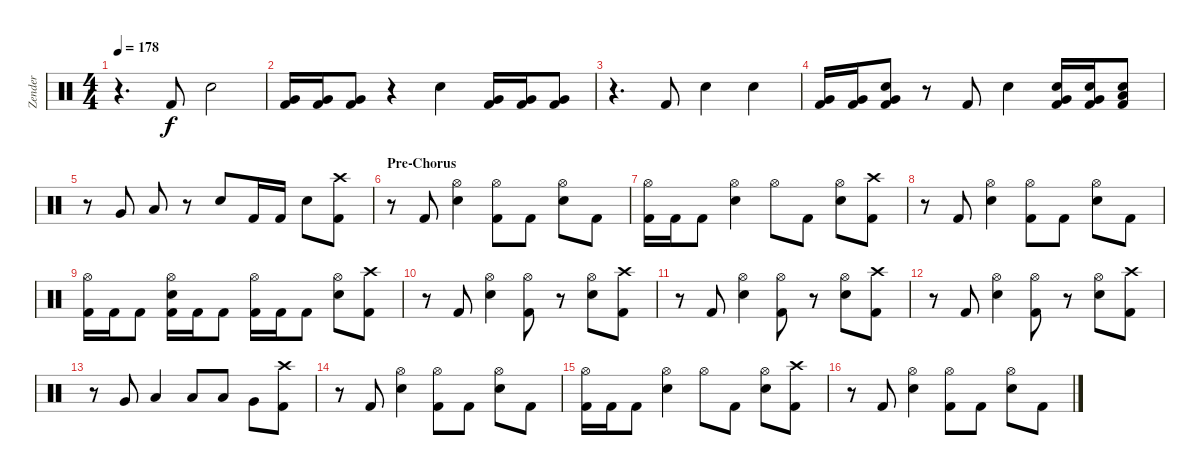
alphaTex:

\track ("Zender" "Zender") {instrument percussion}
\staff {score}
\articulation defaults
\ts (4 4)
\tempo 178
\clef neutral
\ks c
r.4{d dy f} "Kick (hit) 2".8 "Electric Snare (hit)".2 |
("Very Low Tom (hit)" "Kick (hit) 2").16 ("Very Low Tom (hit)" "Kick (hit) 2").16 ("Very Low Tom (hit)" "Kick (hit) 2").8 r.4 "Electric Snare (hit)".4 ("Very Low Tom (hit)" "Kick (hit) 2").16 ("Very Low Tom (hit)" "Kick (hit) 2").16 ("Very Low Tom (hit)" "Kick (hit) 2").8 |
r.4{d} "Kick (hit) 2".8 "Electric Snare (hit)".4 "Electric Snare (hit)".4 |
("Very Low Tom (hit)" "Kick (hit) 2").16 ("Very Low Tom (hit)" "Kick (hit) 2").16 ("Electric Snare (hit)" "Very Low Tom (hit)" "Kick (hit) 2").8 r.8 "Kick (hit) 2".8 "Electric Snare (hit)".4 ("Electric Snare (hit)" "Very Low Tom (hit)" "Kick (hit) 2").16 ("Electric Snare (hit)" "Very Low Tom (hit)" "Kick (hit) 2").16 ("Electric Snare (hit)" "Low Tom (hit)" "Kick (hit) 2").8 |
r.8 "Very Low Tom (hit)".8 "Low Floor Tom (hit)".8 r.8 "Electric Snare (hit)".8 "Kick (hit) 2".16 "Kick (hit) 2".16 "Electric Snare (hit)".8 ("Crash high (hit)" "Kick (hit) 2").8 |
\section ("" "Pre-Chorus")
r.8 "Kick (hit) 2".8 ("Hi-Hat (open)" "Electric Snare (hit)").4 ("Hi-Hat (open)" "Kick (hit) 2").8 "Kick (hit) 2".8 ("Hi-Hat (open)" "Electric Snare (hit)").8 "Kick (hit) 2".8 |
("Hi-Hat (open)" "Kick (hit) 2").16 "Kick (hit) 2".16 "Kick (hit) 2".8 ("Hi-Hat (open)" "Electric Snare (hit)").4 "Hi-Hat (open)".8 "Kick (hit) 2".8 ("Hi-Hat (open)" "Electric Snare (hit)").8 ("Crash high (hit)" "Kick (hit) 2").8 |
r.8 "Kick (hit) 2".8 ("Hi-Hat (open)" "Electric Snare (hit)").4 ("Hi-Hat (open)" "Kick (hit) 2").8 "Kick (hit) 2".8 ("Hi-Hat (open)" "Electric Snare (hit)").8 "Kick (hit) 2".8 |
("Hi-Hat (open)" "Kick (hit) 2").16 "Kick (hit) 2".16 "Kick (hit) 2".8 ("Hi-Hat (open)" "Electric Snare (hit)" "Kick (hit) 2").16 "Kick (hit) 2".16 "Kick (hit) 2".8 ("Hi-Hat (open)" "Kick (hit) 2").16 "Kick (hit) 2".16 "Kick (hit) 2".8 ("Hi-Hat (open)" "Electric Snare (hit)").8 ("Crash high (hit)" "Kick (hit) 2").8 |
r.8 "Kick (hit) 2".8 ("Hi-Hat (open)" "Electric Snare (hit)").4 ("Hi-Hat (open)" "Kick (hit) 2").8 r.8 ("Hi-Hat (open)" "Electric Snare (hit)").8 ("Crash high (hit)" "Kick (hit) 2").8 |
r.8 "Kick (hit) 2".8 ("Hi-Hat (open)" "Electric Snare (hit)").4 ("Hi-Hat (open)" "Kick (hit) 2").8 r.8 ("Hi-Hat (open)" "Electric Snare (hit)").8 ("Crash high (hit)" "Kick (hit) 2").8 |
r.8 "Kick (hit) 2".8 ("Hi-Hat (open)" "Electric Snare (hit)").4 ("Hi-Hat (open)" "Kick (hit) 2").8 r.8 ("Hi-Hat (open)" "Electric Snare (hit)").8 ("Crash high (hit)" "Kick (hit) 2").8 |
r.8 "Very Low Tom (hit)".8 "Low Floor Tom (hit)".4 "Low Floor Tom (hit)".8 "Low Tom (hit)".8 "Very Low Tom (hit)".8 ("Crash high (hit)" "Kick (hit) 2").8 |
r.8 "Kick (hit) 2".8 ("Hi-Hat (open)" "Electric Snare (hit)").4 ("Hi-Hat (open)" "Kick (hit) 2").8 "Kick (hit) 2".8 ("Hi-Hat (open)" "Electric Snare (hit)").8 "Kick (hit) 2".8 |
("Hi-Hat (open)" "Kick (hit) 2").16 "Kick (hit) 2".16 "Kick (hit) 2".8 ("Hi-Hat (open)" "Electric Snare (hit)").4 "Hi-Hat (open)".8 "Kick (hit) 2".8 ("Hi-Hat (open)" "Electric Snare (hit)").8 ("Crash high (hit)" "Kick (hit) 2").8 |
r.8 "Kick (hit) 2".8 ("Hi-Hat (open)" "Electric Snare (hit)").4 ("Hi-Hat (open)" "Kick (hit) 2").8 "Kick (hit) 2".8 ("Hi-Hat (open)" "Electric Snare (hit)").8 "Kick (hit) 2".8
